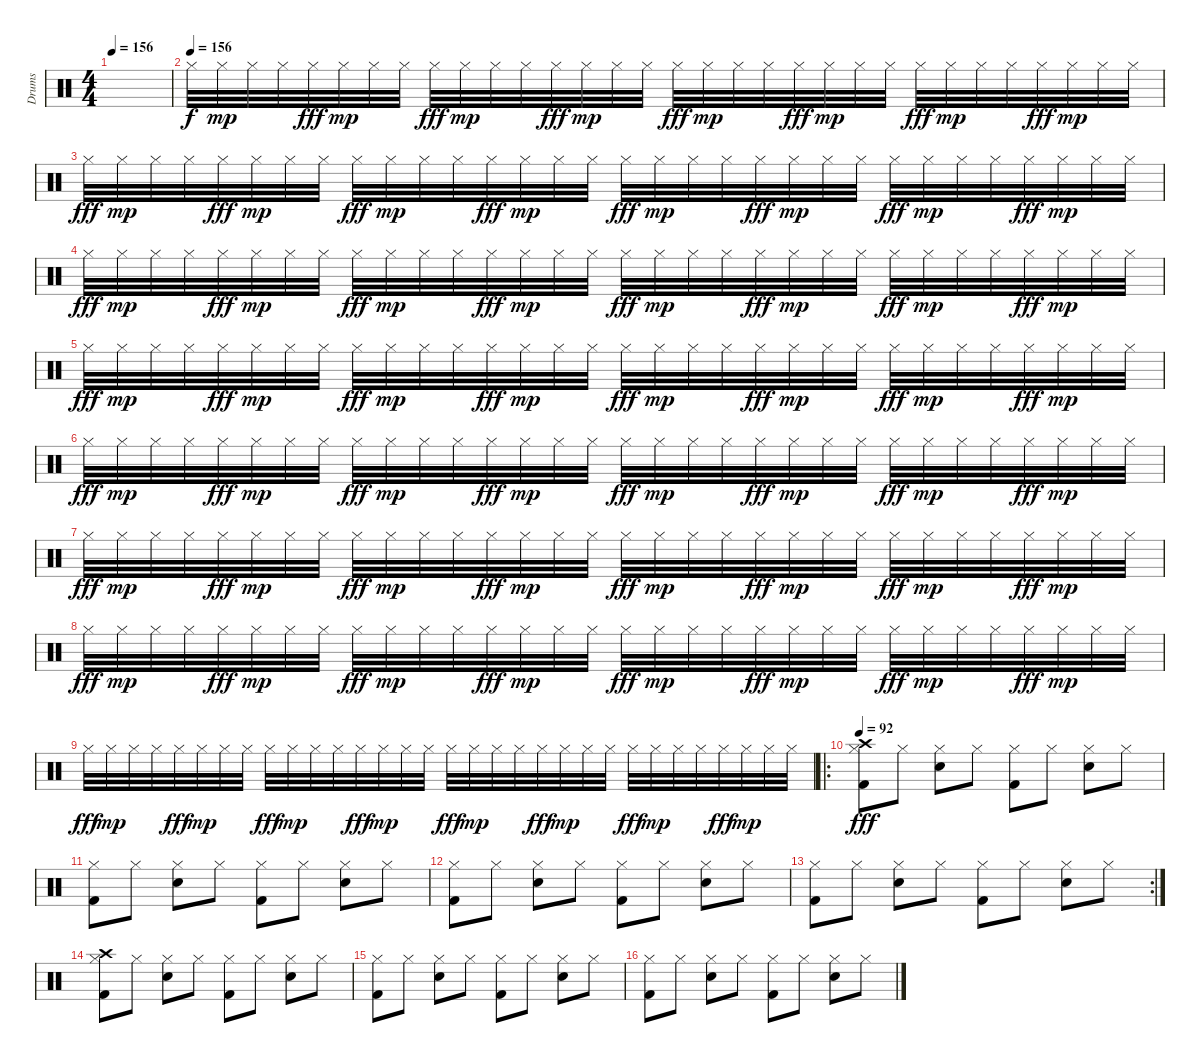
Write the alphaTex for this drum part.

\track ("Drums" "Drums") {instrument percussion}
\staff {score}
\articulation defaults
\ts (4 4)
\tempo 156
\clef neutral
\ks c
|
\tempo (156)
"Hi-Hat (closed)".32 "Hi-Hat (closed)".32{dy mp} "Hi-Hat (closed)".32 "Hi-Hat (closed)".32 "Hi-Hat (closed)".32{dy fff} "Hi-Hat (closed)".32{dy mp} "Hi-Hat (closed)".32 "Hi-Hat (closed)".32 "Hi-Hat (closed)".32{dy fff} "Hi-Hat (closed)".32{dy mp} "Hi-Hat (closed)".32 "Hi-Hat (closed)".32 "Hi-Hat (closed)".32{dy fff} "Hi-Hat (closed)".32{dy mp} "Hi-Hat (closed)".32 "Hi-Hat (closed)".32 "Hi-Hat (closed)".32{dy fff} "Hi-Hat (closed)".32{dy mp} "Hi-Hat (closed)".32 "Hi-Hat (closed)".32 "Hi-Hat (closed)".32{dy fff} "Hi-Hat (closed)".32{dy mp} "Hi-Hat (closed)".32 "Hi-Hat (closed)".32 "Hi-Hat (closed)".32{dy fff} "Hi-Hat (closed)".32{dy mp} "Hi-Hat (closed)".32 "Hi-Hat (closed)".32 "Hi-Hat (closed)".32{dy fff} "Hi-Hat (closed)".32{dy mp} "Hi-Hat (closed)".32 "Hi-Hat (closed)".32 |
"Hi-Hat (closed)".32{dy fff} "Hi-Hat (closed)".32{dy mp} "Hi-Hat (closed)".32 "Hi-Hat (closed)".32 "Hi-Hat (closed)".32{dy fff} "Hi-Hat (closed)".32{dy mp} "Hi-Hat (closed)".32 "Hi-Hat (closed)".32 "Hi-Hat (closed)".32{dy fff} "Hi-Hat (closed)".32{dy mp} "Hi-Hat (closed)".32 "Hi-Hat (closed)".32 "Hi-Hat (closed)".32{dy fff} "Hi-Hat (closed)".32{dy mp} "Hi-Hat (closed)".32 "Hi-Hat (closed)".32 "Hi-Hat (closed)".32{dy fff} "Hi-Hat (closed)".32{dy mp} "Hi-Hat (closed)".32 "Hi-Hat (closed)".32 "Hi-Hat (closed)".32{dy fff} "Hi-Hat (closed)".32{dy mp} "Hi-Hat (closed)".32 "Hi-Hat (closed)".32 "Hi-Hat (closed)".32{dy fff} "Hi-Hat (closed)".32{dy mp} "Hi-Hat (closed)".32 "Hi-Hat (closed)".32 "Hi-Hat (closed)".32{dy fff} "Hi-Hat (closed)".32{dy mp} "Hi-Hat (closed)".32 "Hi-Hat (closed)".32 |
"Hi-Hat (closed)".32{dy fff} "Hi-Hat (closed)".32{dy mp} "Hi-Hat (closed)".32 "Hi-Hat (closed)".32 "Hi-Hat (closed)".32{dy fff} "Hi-Hat (closed)".32{dy mp} "Hi-Hat (closed)".32 "Hi-Hat (closed)".32 "Hi-Hat (closed)".32{dy fff} "Hi-Hat (closed)".32{dy mp} "Hi-Hat (closed)".32 "Hi-Hat (closed)".32 "Hi-Hat (closed)".32{dy fff} "Hi-Hat (closed)".32{dy mp} "Hi-Hat (closed)".32 "Hi-Hat (closed)".32 "Hi-Hat (closed)".32{dy fff} "Hi-Hat (closed)".32{dy mp} "Hi-Hat (closed)".32 "Hi-Hat (closed)".32 "Hi-Hat (closed)".32{dy fff} "Hi-Hat (closed)".32{dy mp} "Hi-Hat (closed)".32 "Hi-Hat (closed)".32 "Hi-Hat (closed)".32{dy fff} "Hi-Hat (closed)".32{dy mp} "Hi-Hat (closed)".32 "Hi-Hat (closed)".32 "Hi-Hat (closed)".32{dy fff} "Hi-Hat (closed)".32{dy mp} "Hi-Hat (closed)".32 "Hi-Hat (closed)".32 |
"Hi-Hat (closed)".32{dy fff} "Hi-Hat (closed)".32{dy mp} "Hi-Hat (closed)".32 "Hi-Hat (closed)".32 "Hi-Hat (closed)".32{dy fff} "Hi-Hat (closed)".32{dy mp} "Hi-Hat (closed)".32 "Hi-Hat (closed)".32 "Hi-Hat (closed)".32{dy fff} "Hi-Hat (closed)".32{dy mp} "Hi-Hat (closed)".32 "Hi-Hat (closed)".32 "Hi-Hat (closed)".32{dy fff} "Hi-Hat (closed)".32{dy mp} "Hi-Hat (closed)".32 "Hi-Hat (closed)".32 "Hi-Hat (closed)".32{dy fff} "Hi-Hat (closed)".32{dy mp} "Hi-Hat (closed)".32 "Hi-Hat (closed)".32 "Hi-Hat (closed)".32{dy fff} "Hi-Hat (closed)".32{dy mp} "Hi-Hat (closed)".32 "Hi-Hat (closed)".32 "Hi-Hat (closed)".32{dy fff} "Hi-Hat (closed)".32{dy mp} "Hi-Hat (closed)".32 "Hi-Hat (closed)".32 "Hi-Hat (closed)".32{dy fff} "Hi-Hat (closed)".32{dy mp} "Hi-Hat (closed)".32 "Hi-Hat (closed)".32 |
"Hi-Hat (closed)".32{dy fff} "Hi-Hat (closed)".32{dy mp} "Hi-Hat (closed)".32 "Hi-Hat (closed)".32 "Hi-Hat (closed)".32{dy fff} "Hi-Hat (closed)".32{dy mp} "Hi-Hat (closed)".32 "Hi-Hat (closed)".32 "Hi-Hat (closed)".32{dy fff} "Hi-Hat (closed)".32{dy mp} "Hi-Hat (closed)".32 "Hi-Hat (closed)".32 "Hi-Hat (closed)".32{dy fff} "Hi-Hat (closed)".32{dy mp} "Hi-Hat (closed)".32 "Hi-Hat (closed)".32 "Hi-Hat (closed)".32{dy fff} "Hi-Hat (closed)".32{dy mp} "Hi-Hat (closed)".32 "Hi-Hat (closed)".32 "Hi-Hat (closed)".32{dy fff} "Hi-Hat (closed)".32{dy mp} "Hi-Hat (closed)".32 "Hi-Hat (closed)".32 "Hi-Hat (closed)".32{dy fff} "Hi-Hat (closed)".32{dy mp} "Hi-Hat (closed)".32 "Hi-Hat (closed)".32 "Hi-Hat (closed)".32{dy fff} "Hi-Hat (closed)".32{dy mp} "Hi-Hat (closed)".32 "Hi-Hat (closed)".32 |
"Hi-Hat (closed)".32{dy fff} "Hi-Hat (closed)".32{dy mp} "Hi-Hat (closed)".32 "Hi-Hat (closed)".32 "Hi-Hat (closed)".32{dy fff} "Hi-Hat (closed)".32{dy mp} "Hi-Hat (closed)".32 "Hi-Hat (closed)".32 "Hi-Hat (closed)".32{dy fff} "Hi-Hat (closed)".32{dy mp} "Hi-Hat (closed)".32 "Hi-Hat (closed)".32 "Hi-Hat (closed)".32{dy fff} "Hi-Hat (closed)".32{dy mp} "Hi-Hat (closed)".32 "Hi-Hat (closed)".32 "Hi-Hat (closed)".32{dy fff} "Hi-Hat (closed)".32{dy mp} "Hi-Hat (closed)".32 "Hi-Hat (closed)".32 "Hi-Hat (closed)".32{dy fff} "Hi-Hat (closed)".32{dy mp} "Hi-Hat (closed)".32 "Hi-Hat (closed)".32 "Hi-Hat (closed)".32{dy fff} "Hi-Hat (closed)".32{dy mp} "Hi-Hat (closed)".32 "Hi-Hat (closed)".32 "Hi-Hat (closed)".32{dy fff} "Hi-Hat (closed)".32{dy mp} "Hi-Hat (closed)".32 "Hi-Hat (closed)".32 |
"Hi-Hat (closed)".32{dy fff} "Hi-Hat (closed)".32{dy mp} "Hi-Hat (closed)".32 "Hi-Hat (closed)".32 "Hi-Hat (closed)".32{dy fff} "Hi-Hat (closed)".32{dy mp} "Hi-Hat (closed)".32 "Hi-Hat (closed)".32 "Hi-Hat (closed)".32{dy fff} "Hi-Hat (closed)".32{dy mp} "Hi-Hat (closed)".32 "Hi-Hat (closed)".32 "Hi-Hat (closed)".32{dy fff} "Hi-Hat (closed)".32{dy mp} "Hi-Hat (closed)".32 "Hi-Hat (closed)".32 "Hi-Hat (closed)".32{dy fff} "Hi-Hat (closed)".32{dy mp} "Hi-Hat (closed)".32 "Hi-Hat (closed)".32 "Hi-Hat (closed)".32{dy fff} "Hi-Hat (closed)".32{dy mp} "Hi-Hat (closed)".32 "Hi-Hat (closed)".32 "Hi-Hat (closed)".32{dy fff} "Hi-Hat (closed)".32{dy mp} "Hi-Hat (closed)".32 "Hi-Hat (closed)".32 "Hi-Hat (closed)".32{dy fff} "Hi-Hat (closed)".32{dy mp} "Hi-Hat (closed)".32 "Hi-Hat (closed)".32 |
"Hi-Hat (closed)".32{dy fff} "Hi-Hat (closed)".32{dy mp} "Hi-Hat (closed)".32 "Hi-Hat (closed)".32 "Hi-Hat (closed)".32{dy fff} "Hi-Hat (closed)".32{dy mp} "Hi-Hat (closed)".32 "Hi-Hat (closed)".32 "Hi-Hat (closed)".32{dy fff} "Hi-Hat (closed)".32{dy mp} "Hi-Hat (closed)".32 "Hi-Hat (closed)".32 "Hi-Hat (closed)".32{dy fff} "Hi-Hat (closed)".32{dy mp} "Hi-Hat (closed)".32 "Hi-Hat (closed)".32 "Hi-Hat (closed)".32{dy fff} "Hi-Hat (closed)".32{dy mp} "Hi-Hat (closed)".32 "Hi-Hat (closed)".32 "Hi-Hat (closed)".32{dy fff} "Hi-Hat (closed)".32{dy mp} "Hi-Hat (closed)".32 "Hi-Hat (closed)".32 "Hi-Hat (closed)".32{dy fff} "Hi-Hat (closed)".32{dy mp} "Hi-Hat (closed)".32 "Hi-Hat (closed)".32 "Hi-Hat (closed)".32{dy fff} "Hi-Hat (closed)".32{dy mp} "Hi-Hat (closed)".32 "Hi-Hat (closed)".32 |
\ro
\tempo 92
("Hi-Hat (closed)" "Kick (hit) 2" "Crash high (hit)").8{dy fff} "Hi-Hat (closed)".8 ("Hi-Hat (closed)" "Snare (hit) 2").8 "Hi-Hat (closed)".8 ("Hi-Hat (closed)" "Kick (hit) 2").8 "Hi-Hat (closed)".8 ("Hi-Hat (closed)" "Snare (hit) 2").8 "Hi-Hat (closed)".8 |
("Hi-Hat (closed)" "Kick (hit) 2").8 "Hi-Hat (closed)".8 ("Hi-Hat (closed)" "Snare (hit) 2").8 "Hi-Hat (closed)".8 ("Hi-Hat (closed)" "Kick (hit) 2").8 "Hi-Hat (closed)".8 ("Hi-Hat (closed)" "Snare (hit) 2").8 "Hi-Hat (closed)".8 |
("Hi-Hat (closed)" "Kick (hit) 2").8 "Hi-Hat (closed)".8 ("Hi-Hat (closed)" "Snare (hit) 2").8 "Hi-Hat (closed)".8 ("Hi-Hat (closed)" "Kick (hit) 2").8 "Hi-Hat (closed)".8 ("Hi-Hat (closed)" "Snare (hit) 2").8 "Hi-Hat (closed)".8 |
\rc 2
("Hi-Hat (closed)" "Kick (hit) 2").8 "Hi-Hat (closed)".8 ("Hi-Hat (closed)" "Snare (hit) 2").8 "Hi-Hat (closed)".8 ("Hi-Hat (closed)" "Kick (hit) 2").8 "Hi-Hat (closed)".8 ("Hi-Hat (closed)" "Snare (hit) 2").8 "Hi-Hat (closed)".8 |
("Hi-Hat (closed)" "Kick (hit) 2" "Crash high (hit)").8 "Hi-Hat (closed)".8 ("Hi-Hat (closed)" "Snare (hit) 2").8 "Hi-Hat (closed)".8 ("Hi-Hat (closed)" "Kick (hit) 2").8 "Hi-Hat (closed)".8 ("Hi-Hat (closed)" "Snare (hit) 2").8 "Hi-Hat (closed)".8 |
("Hi-Hat (closed)" "Kick (hit) 2").8 "Hi-Hat (closed)".8 ("Hi-Hat (closed)" "Snare (hit) 2").8 "Hi-Hat (closed)".8 ("Hi-Hat (closed)" "Kick (hit) 2").8 "Hi-Hat (closed)".8 ("Hi-Hat (closed)" "Snare (hit) 2").8 "Hi-Hat (closed)".8 |
("Hi-Hat (closed)" "Kick (hit) 2").8 "Hi-Hat (closed)".8 ("Hi-Hat (closed)" "Snare (hit) 2").8 "Hi-Hat (closed)".8 ("Hi-Hat (closed)" "Kick (hit) 2").8 "Hi-Hat (closed)".8 ("Hi-Hat (closed)" "Snare (hit) 2").8 "Hi-Hat (closed)".8
